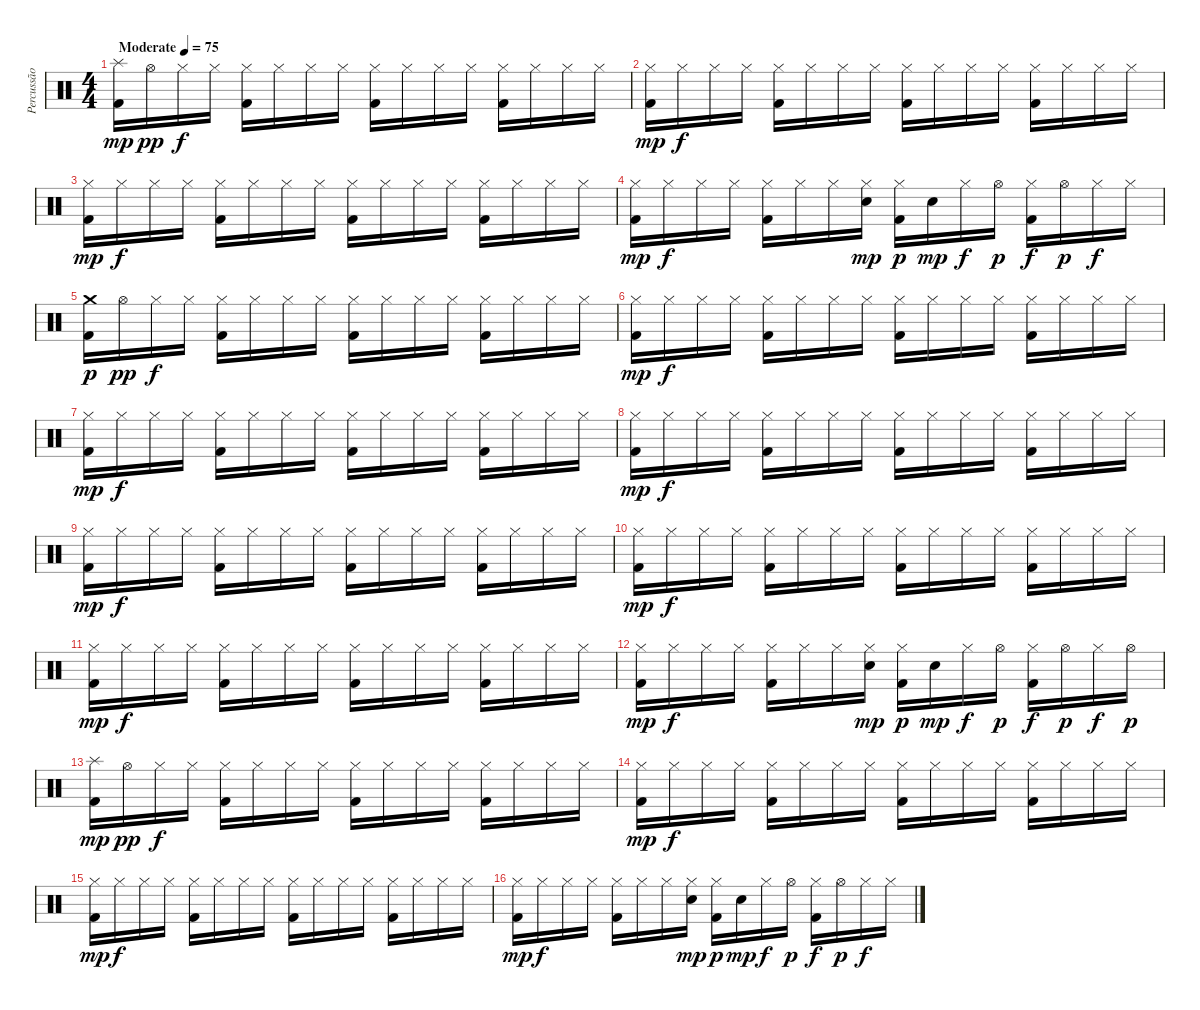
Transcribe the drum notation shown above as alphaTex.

\track ("Percussão" "Percussão") {instrument percussion}
\staff {score}
\articulation defaults
\ts (4 4)
\tempo (75 "Moderate")
\clef neutral
\ks c
("Splash (hit)" "Kick (hit) 2").16{dy mp} "Hi-Hat (open)".16{dy pp} "Hi-Hat (closed)".16{dy f} "Hi-Hat (closed)".16 ("Hi-Hat (closed)" "Kick (hit) 2").16 "Hi-Hat (closed)".16 "Hi-Hat (closed)".16 "Hi-Hat (closed)".16 ("Hi-Hat (closed)" "Kick (hit) 2").16 "Hi-Hat (closed)".16 "Hi-Hat (closed)".16 "Hi-Hat (closed)".16 ("Hi-Hat (closed)" "Kick (hit) 2").16 "Hi-Hat (closed)".16 "Hi-Hat (closed)".16 "Hi-Hat (closed)".16 |
("Hi-Hat (closed)" "Kick (hit) 2").16{dy mp} "Hi-Hat (closed)".16{dy f} "Hi-Hat (closed)".16 "Hi-Hat (closed)".16 ("Hi-Hat (closed)" "Kick (hit) 2").16 "Hi-Hat (closed)".16 "Hi-Hat (closed)".16 "Hi-Hat (closed)".16 ("Hi-Hat (closed)" "Kick (hit) 2").16 "Hi-Hat (closed)".16 "Hi-Hat (closed)".16 "Hi-Hat (closed)".16 ("Hi-Hat (closed)" "Kick (hit) 2").16 "Hi-Hat (closed)".16 "Hi-Hat (closed)".16 "Hi-Hat (closed)".16 |
("Hi-Hat (closed)" "Kick (hit) 2").16{dy mp} "Hi-Hat (closed)".16{dy f} "Hi-Hat (closed)".16 "Hi-Hat (closed)".16 ("Hi-Hat (closed)" "Kick (hit) 2").16 "Hi-Hat (closed)".16 "Hi-Hat (closed)".16 "Hi-Hat (closed)".16 ("Hi-Hat (closed)" "Kick (hit) 2").16 "Hi-Hat (closed)".16 "Hi-Hat (closed)".16 "Hi-Hat (closed)".16 ("Hi-Hat (closed)" "Kick (hit) 2").16 "Hi-Hat (closed)".16 "Hi-Hat (closed)".16 "Hi-Hat (closed)".16 |
("Hi-Hat (closed)" "Kick (hit) 2").16{dy mp} "Hi-Hat (closed)".16{dy f} "Hi-Hat (closed)".16 "Hi-Hat (closed)".16 ("Hi-Hat (closed)" "Kick (hit) 2").16 "Hi-Hat (closed)".16 "Hi-Hat (closed)".16 ("Hi-Hat (closed)" "Snare (hit) 2").16{dy mp} ("Hi-Hat (closed)" "Kick (hit) 2").16{dy p} "Snare (hit) 2".16{dy mp} "Hi-Hat (closed)".16{dy f} "Hi-Hat (open)".16{dy p} ("Hi-Hat (closed)" "Kick (hit) 2").16{dy f} "Hi-Hat (open)".16{dy p} "Hi-Hat (closed)".16{dy f} "Hi-Hat (closed)".16 |
("Crash medium (hit)" "Kick (hit) 2").16{dy p} "Hi-Hat (open)".16{dy pp} "Hi-Hat (closed)".16{dy f} "Hi-Hat (closed)".16 ("Hi-Hat (closed)" "Kick (hit) 2").16 "Hi-Hat (closed)".16 "Hi-Hat (closed)".16 "Hi-Hat (closed)".16 ("Hi-Hat (closed)" "Kick (hit) 2").16 "Hi-Hat (closed)".16 "Hi-Hat (closed)".16 "Hi-Hat (closed)".16 ("Hi-Hat (closed)" "Kick (hit) 2").16 "Hi-Hat (closed)".16 "Hi-Hat (closed)".16 "Hi-Hat (closed)".16 |
("Hi-Hat (closed)" "Kick (hit) 2").16{dy mp} "Hi-Hat (closed)".16{dy f} "Hi-Hat (closed)".16 "Hi-Hat (closed)".16 ("Hi-Hat (closed)" "Kick (hit) 2").16 "Hi-Hat (closed)".16 "Hi-Hat (closed)".16 "Hi-Hat (closed)".16 ("Hi-Hat (closed)" "Kick (hit) 2").16 "Hi-Hat (closed)".16 "Hi-Hat (closed)".16 "Hi-Hat (closed)".16 ("Hi-Hat (closed)" "Kick (hit) 2").16 "Hi-Hat (closed)".16 "Hi-Hat (closed)".16 "Hi-Hat (closed)".16 |
("Hi-Hat (closed)" "Kick (hit) 2").16{dy mp} "Hi-Hat (closed)".16{dy f} "Hi-Hat (closed)".16 "Hi-Hat (closed)".16 ("Hi-Hat (closed)" "Kick (hit) 2").16 "Hi-Hat (closed)".16 "Hi-Hat (closed)".16 "Hi-Hat (closed)".16 ("Hi-Hat (closed)" "Kick (hit) 2").16 "Hi-Hat (closed)".16 "Hi-Hat (closed)".16 "Hi-Hat (closed)".16 ("Hi-Hat (closed)" "Kick (hit) 2").16 "Hi-Hat (closed)".16 "Hi-Hat (closed)".16 "Hi-Hat (closed)".16 |
("Hi-Hat (closed)" "Kick (hit) 2").16{dy mp} "Hi-Hat (closed)".16{dy f} "Hi-Hat (closed)".16 "Hi-Hat (closed)".16 ("Hi-Hat (closed)" "Kick (hit) 2").16 "Hi-Hat (closed)".16 "Hi-Hat (closed)".16 "Hi-Hat (closed)".16 ("Hi-Hat (closed)" "Kick (hit) 2").16 "Hi-Hat (closed)".16 "Hi-Hat (closed)".16 "Hi-Hat (closed)".16 ("Hi-Hat (closed)" "Kick (hit) 2").16 "Hi-Hat (closed)".16 "Hi-Hat (closed)".16 "Hi-Hat (closed)".16 |
("Hi-Hat (closed)" "Kick (hit) 2").16{dy mp} "Hi-Hat (closed)".16{dy f} "Hi-Hat (closed)".16 "Hi-Hat (closed)".16 ("Hi-Hat (closed)" "Kick (hit) 2").16 "Hi-Hat (closed)".16 "Hi-Hat (closed)".16 "Hi-Hat (closed)".16 ("Hi-Hat (closed)" "Kick (hit) 2").16 "Hi-Hat (closed)".16 "Hi-Hat (closed)".16 "Hi-Hat (closed)".16 ("Hi-Hat (closed)" "Kick (hit) 2").16 "Hi-Hat (closed)".16 "Hi-Hat (closed)".16 "Hi-Hat (closed)".16 |
("Hi-Hat (closed)" "Kick (hit) 2").16{dy mp} "Hi-Hat (closed)".16{dy f} "Hi-Hat (closed)".16 "Hi-Hat (closed)".16 ("Hi-Hat (closed)" "Kick (hit) 2").16 "Hi-Hat (closed)".16 "Hi-Hat (closed)".16 "Hi-Hat (closed)".16 ("Hi-Hat (closed)" "Kick (hit) 2").16 "Hi-Hat (closed)".16 "Hi-Hat (closed)".16 "Hi-Hat (closed)".16 ("Hi-Hat (closed)" "Kick (hit) 2").16 "Hi-Hat (closed)".16 "Hi-Hat (closed)".16 "Hi-Hat (closed)".16 |
("Hi-Hat (closed)" "Kick (hit) 2").16{dy mp} "Hi-Hat (closed)".16{dy f} "Hi-Hat (closed)".16 "Hi-Hat (closed)".16 ("Hi-Hat (closed)" "Kick (hit) 2").16 "Hi-Hat (closed)".16 "Hi-Hat (closed)".16 "Hi-Hat (closed)".16 ("Hi-Hat (closed)" "Kick (hit) 2").16 "Hi-Hat (closed)".16 "Hi-Hat (closed)".16 "Hi-Hat (closed)".16 ("Hi-Hat (closed)" "Kick (hit) 2").16 "Hi-Hat (closed)".16 "Hi-Hat (closed)".16 "Hi-Hat (closed)".16 |
("Hi-Hat (closed)" "Kick (hit) 2").16{dy mp} "Hi-Hat (closed)".16{dy f} "Hi-Hat (closed)".16 "Hi-Hat (closed)".16 ("Hi-Hat (closed)" "Kick (hit) 2").16 "Hi-Hat (closed)".16 "Hi-Hat (closed)".16 ("Hi-Hat (closed)" "Snare (hit) 2").16{dy mp} ("Hi-Hat (closed)" "Kick (hit) 2").16{dy p} "Snare (hit) 2".16{dy mp} "Hi-Hat (closed)".16{dy f} "Hi-Hat (open)".16{dy p} ("Hi-Hat (closed)" "Kick (hit) 2").16{dy f} "Hi-Hat (open)".16{dy p} "Hi-Hat (closed)".16{dy f} "Hi-Hat (open)".16{dy p} |
("Splash (hit)" "Kick (hit) 2").16{dy mp} "Hi-Hat (open)".16{dy pp} "Hi-Hat (closed)".16{dy f} "Hi-Hat (closed)".16 ("Hi-Hat (closed)" "Kick (hit) 2").16 "Hi-Hat (closed)".16 "Hi-Hat (closed)".16 "Hi-Hat (closed)".16 ("Hi-Hat (closed)" "Kick (hit) 2").16 "Hi-Hat (closed)".16 "Hi-Hat (closed)".16 "Hi-Hat (closed)".16 ("Hi-Hat (closed)" "Kick (hit) 2").16 "Hi-Hat (closed)".16 "Hi-Hat (closed)".16 "Hi-Hat (closed)".16 |
("Hi-Hat (closed)" "Kick (hit) 2").16{dy mp} "Hi-Hat (closed)".16{dy f} "Hi-Hat (closed)".16 "Hi-Hat (closed)".16 ("Hi-Hat (closed)" "Kick (hit) 2").16 "Hi-Hat (closed)".16 "Hi-Hat (closed)".16 "Hi-Hat (closed)".16 ("Hi-Hat (closed)" "Kick (hit) 2").16 "Hi-Hat (closed)".16 "Hi-Hat (closed)".16 "Hi-Hat (closed)".16 ("Hi-Hat (closed)" "Kick (hit) 2").16 "Hi-Hat (closed)".16 "Hi-Hat (closed)".16 "Hi-Hat (closed)".16 |
("Hi-Hat (closed)" "Kick (hit) 2").16{dy mp} "Hi-Hat (closed)".16{dy f} "Hi-Hat (closed)".16 "Hi-Hat (closed)".16 ("Hi-Hat (closed)" "Kick (hit) 2").16 "Hi-Hat (closed)".16 "Hi-Hat (closed)".16 "Hi-Hat (closed)".16 ("Hi-Hat (closed)" "Kick (hit) 2").16 "Hi-Hat (closed)".16 "Hi-Hat (closed)".16 "Hi-Hat (closed)".16 ("Hi-Hat (closed)" "Kick (hit) 2").16 "Hi-Hat (closed)".16 "Hi-Hat (closed)".16 "Hi-Hat (closed)".16 |
("Hi-Hat (closed)" "Kick (hit) 2").16{dy mp} "Hi-Hat (closed)".16{dy f} "Hi-Hat (closed)".16 "Hi-Hat (closed)".16 ("Hi-Hat (closed)" "Kick (hit) 2").16 "Hi-Hat (closed)".16 "Hi-Hat (closed)".16 ("Hi-Hat (closed)" "Snare (hit) 2").16{dy mp} ("Hi-Hat (closed)" "Kick (hit) 2").16{dy p} "Snare (hit) 2".16{dy mp} "Hi-Hat (closed)".16{dy f} "Hi-Hat (open)".16{dy p} ("Hi-Hat (closed)" "Kick (hit) 2").16{dy f} "Hi-Hat (open)".16{dy p} "Hi-Hat (closed)".16{dy f} "Hi-Hat (closed)".16
